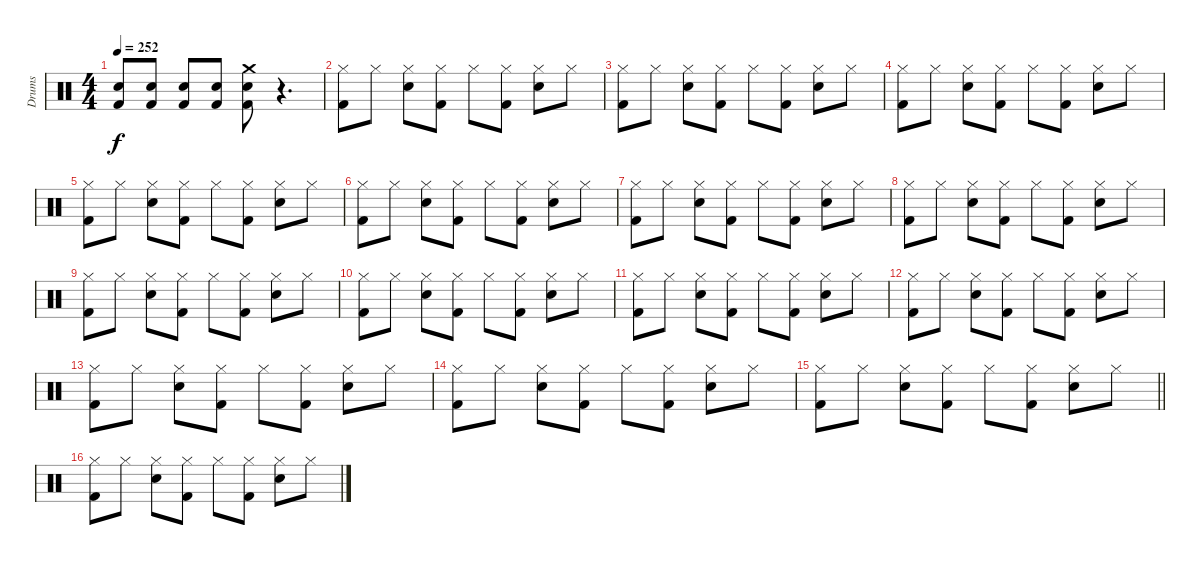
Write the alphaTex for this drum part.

\track ("Drums" "Drums") {instrument percussion}
\staff {score}
\articulation defaults
\ts (4 4)
\tempo 252
\clef neutral
\ks c
("Kick (hit) 2" "Snare (hit) 2").8{dy f} ("Kick (hit) 2" "Snare (hit) 2").8 ("Kick (hit) 2" "Snare (hit) 2").8 ("Kick (hit) 2" "Snare (hit) 2").8 ("Kick (hit) 2" "Snare (hit) 2" "Crash medium (hit)").8 r.4{d} |
("Kick (hit) 2" "Hi-Hat (closed)").8 "Hi-Hat (closed)".8 ("Snare (hit) 2" "Hi-Hat (closed)").8 ("Kick (hit) 2" "Hi-Hat (closed)").8 "Hi-Hat (closed)".8 ("Kick (hit) 2" "Hi-Hat (closed)").8 ("Snare (hit) 2" "Hi-Hat (closed)").8 "Hi-Hat (closed)".8 |
("Kick (hit) 2" "Hi-Hat (closed)").8 "Hi-Hat (closed)".8 ("Snare (hit) 2" "Hi-Hat (closed)").8 ("Kick (hit) 2" "Hi-Hat (closed)").8 "Hi-Hat (closed)".8 ("Kick (hit) 2" "Hi-Hat (closed)").8 ("Snare (hit) 2" "Hi-Hat (closed)").8 "Hi-Hat (closed)".8 |
("Kick (hit) 2" "Hi-Hat (closed)").8 "Hi-Hat (closed)".8 ("Snare (hit) 2" "Hi-Hat (closed)").8 ("Kick (hit) 2" "Hi-Hat (closed)").8 "Hi-Hat (closed)".8 ("Kick (hit) 2" "Hi-Hat (closed)").8 ("Snare (hit) 2" "Hi-Hat (closed)").8 "Hi-Hat (closed)".8 |
("Kick (hit) 2" "Hi-Hat (closed)").8 "Hi-Hat (closed)".8 ("Snare (hit) 2" "Hi-Hat (closed)").8 ("Kick (hit) 2" "Hi-Hat (closed)").8 "Hi-Hat (closed)".8 ("Kick (hit) 2" "Hi-Hat (closed)").8 ("Snare (hit) 2" "Hi-Hat (closed)").8 "Hi-Hat (closed)".8 |
("Kick (hit) 2" "Hi-Hat (closed)").8 "Hi-Hat (closed)".8 ("Snare (hit) 2" "Hi-Hat (closed)").8 ("Kick (hit) 2" "Hi-Hat (closed)").8 "Hi-Hat (closed)".8 ("Kick (hit) 2" "Hi-Hat (closed)").8 ("Snare (hit) 2" "Hi-Hat (closed)").8 "Hi-Hat (closed)".8 |
("Kick (hit) 2" "Hi-Hat (closed)").8 "Hi-Hat (closed)".8 ("Snare (hit) 2" "Hi-Hat (closed)").8 ("Kick (hit) 2" "Hi-Hat (closed)").8 "Hi-Hat (closed)".8 ("Kick (hit) 2" "Hi-Hat (closed)").8 ("Snare (hit) 2" "Hi-Hat (closed)").8 "Hi-Hat (closed)".8 |
("Kick (hit) 2" "Hi-Hat (closed)").8 "Hi-Hat (closed)".8 ("Snare (hit) 2" "Hi-Hat (closed)").8 ("Kick (hit) 2" "Hi-Hat (closed)").8 "Hi-Hat (closed)".8 ("Kick (hit) 2" "Hi-Hat (closed)").8 ("Snare (hit) 2" "Hi-Hat (closed)").8 "Hi-Hat (closed)".8 |
("Kick (hit) 2" "Hi-Hat (closed)").8 "Hi-Hat (closed)".8 ("Snare (hit) 2" "Hi-Hat (closed)").8 ("Kick (hit) 2" "Hi-Hat (closed)").8 "Hi-Hat (closed)".8 ("Kick (hit) 2" "Hi-Hat (closed)").8 ("Snare (hit) 2" "Hi-Hat (closed)").8 "Hi-Hat (closed)".8 |
("Kick (hit) 2" "Hi-Hat (closed)").8 "Hi-Hat (closed)".8 ("Snare (hit) 2" "Hi-Hat (closed)").8 ("Kick (hit) 2" "Hi-Hat (closed)").8 "Hi-Hat (closed)".8 ("Kick (hit) 2" "Hi-Hat (closed)").8 ("Snare (hit) 2" "Hi-Hat (closed)").8 "Hi-Hat (closed)".8 |
("Kick (hit) 2" "Hi-Hat (closed)").8 "Hi-Hat (closed)".8 ("Snare (hit) 2" "Hi-Hat (closed)").8 ("Kick (hit) 2" "Hi-Hat (closed)").8 "Hi-Hat (closed)".8 ("Kick (hit) 2" "Hi-Hat (closed)").8 ("Snare (hit) 2" "Hi-Hat (closed)").8 "Hi-Hat (closed)".8 |
("Kick (hit) 2" "Hi-Hat (closed)").8 "Hi-Hat (closed)".8 ("Snare (hit) 2" "Hi-Hat (closed)").8 ("Kick (hit) 2" "Hi-Hat (closed)").8 "Hi-Hat (closed)".8 ("Kick (hit) 2" "Hi-Hat (closed)").8 ("Snare (hit) 2" "Hi-Hat (closed)").8 "Hi-Hat (closed)".8 |
("Kick (hit) 2" "Hi-Hat (closed)").8 "Hi-Hat (closed)".8 ("Snare (hit) 2" "Hi-Hat (closed)").8 ("Kick (hit) 2" "Hi-Hat (closed)").8 "Hi-Hat (closed)".8 ("Kick (hit) 2" "Hi-Hat (closed)").8 ("Snare (hit) 2" "Hi-Hat (closed)").8 "Hi-Hat (closed)".8 |
("Kick (hit) 2" "Hi-Hat (closed)").8 "Hi-Hat (closed)".8 ("Snare (hit) 2" "Hi-Hat (closed)").8 ("Kick (hit) 2" "Hi-Hat (closed)").8 "Hi-Hat (closed)".8 ("Kick (hit) 2" "Hi-Hat (closed)").8 ("Snare (hit) 2" "Hi-Hat (closed)").8 "Hi-Hat (closed)".8 |
\barLineRight lightlight
("Kick (hit) 2" "Hi-Hat (closed)").8 "Hi-Hat (closed)".8 ("Snare (hit) 2" "Hi-Hat (closed)").8 ("Kick (hit) 2" "Hi-Hat (closed)").8 "Hi-Hat (closed)".8 ("Kick (hit) 2" "Hi-Hat (closed)").8 ("Snare (hit) 2" "Hi-Hat (closed)").8 "Hi-Hat (closed)".8 |
("Kick (hit) 2" "Hi-Hat (closed)").8 "Hi-Hat (closed)".8 ("Snare (hit) 2" "Hi-Hat (closed)").8 ("Kick (hit) 2" "Hi-Hat (closed)").8 "Hi-Hat (closed)".8 ("Kick (hit) 2" "Hi-Hat (closed)").8 ("Snare (hit) 2" "Hi-Hat (closed)").8 "Hi-Hat (closed)".8
